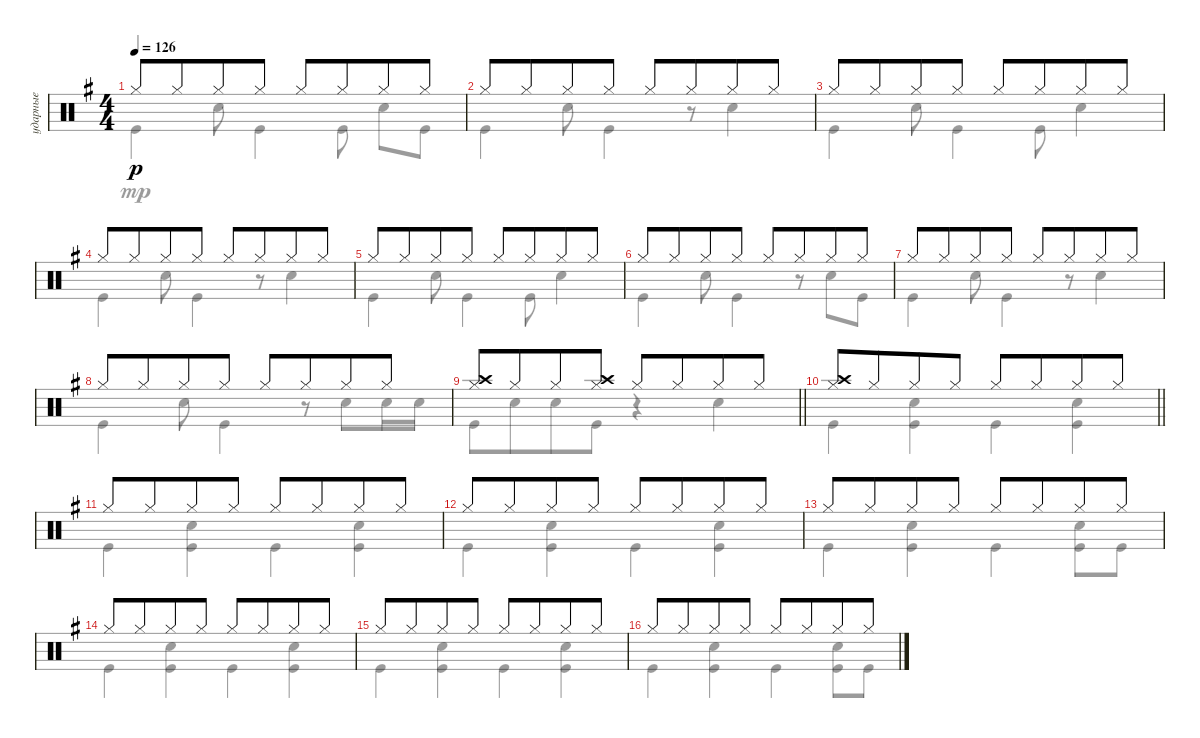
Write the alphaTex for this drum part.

\track ("ударные" "ударные") {instrument percussion}
\staff {score}
\articulation defaults
\voice
\ts (4 4)
\tempo 126
\clef neutral
\ks eminor "Hi-Hat (closed)".8{dy p} "Hi-Hat (closed)".8{beam merge} "Hi-Hat (closed)".8 "Hi-Hat (closed)".8 "Hi-Hat (closed)".8 "Hi-Hat (closed)".8{beam merge} "Hi-Hat (closed)".8 "Hi-Hat (closed)".8
|
"Hi-Hat (closed)".8 "Hi-Hat (closed)".8{beam merge} "Hi-Hat (closed)".8 "Hi-Hat (closed)".8 "Hi-Hat (closed)".8 "Hi-Hat (closed)".8{beam merge} "Hi-Hat (closed)".8 "Hi-Hat (closed)".8 |
"Hi-Hat (closed)".8 "Hi-Hat (closed)".8{beam merge} "Hi-Hat (closed)".8 "Hi-Hat (closed)".8 "Hi-Hat (closed)".8 "Hi-Hat (closed)".8{beam merge} "Hi-Hat (closed)".8 "Hi-Hat (closed)".8 |
"Hi-Hat (closed)".8 "Hi-Hat (closed)".8{beam merge} "Hi-Hat (closed)".8 "Hi-Hat (closed)".8 "Hi-Hat (closed)".8 "Hi-Hat (closed)".8{beam merge} "Hi-Hat (closed)".8 "Hi-Hat (closed)".8 |
"Hi-Hat (closed)".8 "Hi-Hat (closed)".8{beam merge} "Hi-Hat (closed)".8 "Hi-Hat (closed)".8 "Hi-Hat (closed)".8 "Hi-Hat (closed)".8{beam merge} "Hi-Hat (closed)".8 "Hi-Hat (closed)".8 |
"Hi-Hat (closed)".8 "Hi-Hat (closed)".8{beam merge} "Hi-Hat (closed)".8 "Hi-Hat (closed)".8 "Hi-Hat (closed)".8 "Hi-Hat (closed)".8{beam merge} "Hi-Hat (closed)".8 "Hi-Hat (closed)".8 |
"Hi-Hat (closed)".8 "Hi-Hat (closed)".8{beam merge} "Hi-Hat (closed)".8 "Hi-Hat (closed)".8 "Hi-Hat (closed)".8 "Hi-Hat (closed)".8{beam merge} "Hi-Hat (closed)".8 "Hi-Hat (closed)".8 |
"Hi-Hat (closed)".8 "Hi-Hat (closed)".8{beam merge} "Hi-Hat (closed)".8 "Hi-Hat (closed)".8 "Hi-Hat (closed)".8 "Hi-Hat (closed)".8{beam merge} "Hi-Hat (closed)".8 "Hi-Hat (closed)".8 |
\barLineRight lightlight
("Hi-Hat (closed)" "Crash high (hit)").8 "Hi-Hat (closed)".8{beam merge} "Hi-Hat (closed)".8 ("Hi-Hat (closed)" "Crash high (hit)").8 "Hi-Hat (closed)".8 "Hi-Hat (closed)".8{beam merge} "Hi-Hat (closed)".8 "Hi-Hat (closed)".8 |
\section ("" "")
\barLineRight lightlight
("Hi-Hat (closed)" "Crash high (hit)").8 "Hi-Hat (closed)".8{beam merge} "Hi-Hat (closed)".8 "Hi-Hat (closed)".8 "Hi-Hat (closed)".8 "Hi-Hat (closed)".8{beam merge} "Hi-Hat (closed)".8 "Hi-Hat (closed)".8 |
\section ("" "")
"Hi-Hat (closed)".8 "Hi-Hat (closed)".8{beam merge} "Hi-Hat (closed)".8 "Hi-Hat (closed)".8 "Hi-Hat (closed)".8 "Hi-Hat (closed)".8{beam merge} "Hi-Hat (closed)".8 "Hi-Hat (closed)".8 |
"Hi-Hat (closed)".8 "Hi-Hat (closed)".8{beam merge} "Hi-Hat (closed)".8 "Hi-Hat (closed)".8 "Hi-Hat (closed)".8 "Hi-Hat (closed)".8{beam merge} "Hi-Hat (closed)".8 "Hi-Hat (closed)".8 |
"Hi-Hat (closed)".8 "Hi-Hat (closed)".8{beam merge} "Hi-Hat (closed)".8 "Hi-Hat (closed)".8 "Hi-Hat (closed)".8 "Hi-Hat (closed)".8{beam merge} "Hi-Hat (closed)".8 "Hi-Hat (closed)".8 |
"Hi-Hat (closed)".8 "Hi-Hat (closed)".8{beam merge} "Hi-Hat (closed)".8 "Hi-Hat (closed)".8 "Hi-Hat (closed)".8 "Hi-Hat (closed)".8{beam merge} "Hi-Hat (closed)".8 "Hi-Hat (closed)".8 |
"Hi-Hat (closed)".8 "Hi-Hat (closed)".8{beam merge} "Hi-Hat (closed)".8 "Hi-Hat (closed)".8 "Hi-Hat (closed)".8 "Hi-Hat (closed)".8{beam merge} "Hi-Hat (closed)".8 "Hi-Hat (closed)".8 |
"Hi-Hat (closed)".8 "Hi-Hat (closed)".8{beam merge} "Hi-Hat (closed)".8 "Hi-Hat (closed)".8 "Hi-Hat (closed)".8 "Hi-Hat (closed)".8{beam merge} "Hi-Hat (closed)".8 "Hi-Hat (closed)".8
\voice
\clef neutral
\ottava regular
\simile none
\ks eminor "Kick (hit)".4{dy mp} "Snare (hit) 2".8 "Kick (hit)".4 "Kick (hit)".8 "Snare (hit) 2".8 "Kick (hit)".8
|
"Kick (hit)".4 "Snare (hit) 2".8 "Kick (hit)".4 r.8 "Snare (hit) 2".4 |
"Kick (hit)".4 "Snare (hit) 2".8 "Kick (hit)".4 "Kick (hit)".8 "Snare (hit) 2".4 |
"Kick (hit)".4 "Snare (hit) 2".8 "Kick (hit)".4 r.8 "Snare (hit) 2".4 |
"Kick (hit)".4 "Snare (hit) 2".8 "Kick (hit)".4 "Kick (hit)".8 "Snare (hit) 2".4 |
"Kick (hit)".4 "Snare (hit) 2".8 "Kick (hit)".4 r.8 "Snare (hit) 2".8 "Kick (hit)".8 |
"Kick (hit)".4 "Snare (hit) 2".8 "Kick (hit)".4 r.8 "Snare (hit) 2".4 |
"Kick (hit)".4 "Snare (hit) 2".8 "Kick (hit)".4 r.8 "Snare (hit) 2".8 "Snare (hit) 2".16 "Snare (hit) 2".16 |
\barLineRight lightlight "Kick (hit)".8 "Snare (hit) 2".8{beam merge} "Snare (hit) 2".8 "Kick (hit)".8
r.4 "Snare (hit) 2".4 |
\barLineRight lightlight "Kick (hit)".4
("Snare (hit) 2" "Kick (hit)").4 "Kick (hit)".4 ("Snare (hit) 2" "Kick (hit)").4 |
"Kick (hit)".4 ("Snare (hit) 2" "Kick (hit)").4 "Kick (hit)".4 ("Snare (hit) 2" "Kick (hit)").4 |
"Kick (hit)".4 ("Snare (hit) 2" "Kick (hit)").4 "Kick (hit)".4 ("Snare (hit) 2" "Kick (hit)").4 |
"Kick (hit)".4 ("Snare (hit) 2" "Kick (hit)").4 "Kick (hit)".4 ("Snare (hit) 2" "Kick (hit)").8 "Kick (hit)".8 |
"Kick (hit)".4 ("Snare (hit) 2" "Kick (hit)").4 "Kick (hit)".4 ("Snare (hit) 2" "Kick (hit)").4 |
"Kick (hit)".4 ("Snare (hit) 2" "Kick (hit)").4 "Kick (hit)".4 ("Snare (hit) 2" "Kick (hit)").4 |
"Kick (hit)".4 ("Snare (hit) 2" "Kick (hit)").4 "Kick (hit)".4 ("Snare (hit) 2" "Kick (hit)").8 "Kick (hit)".8
